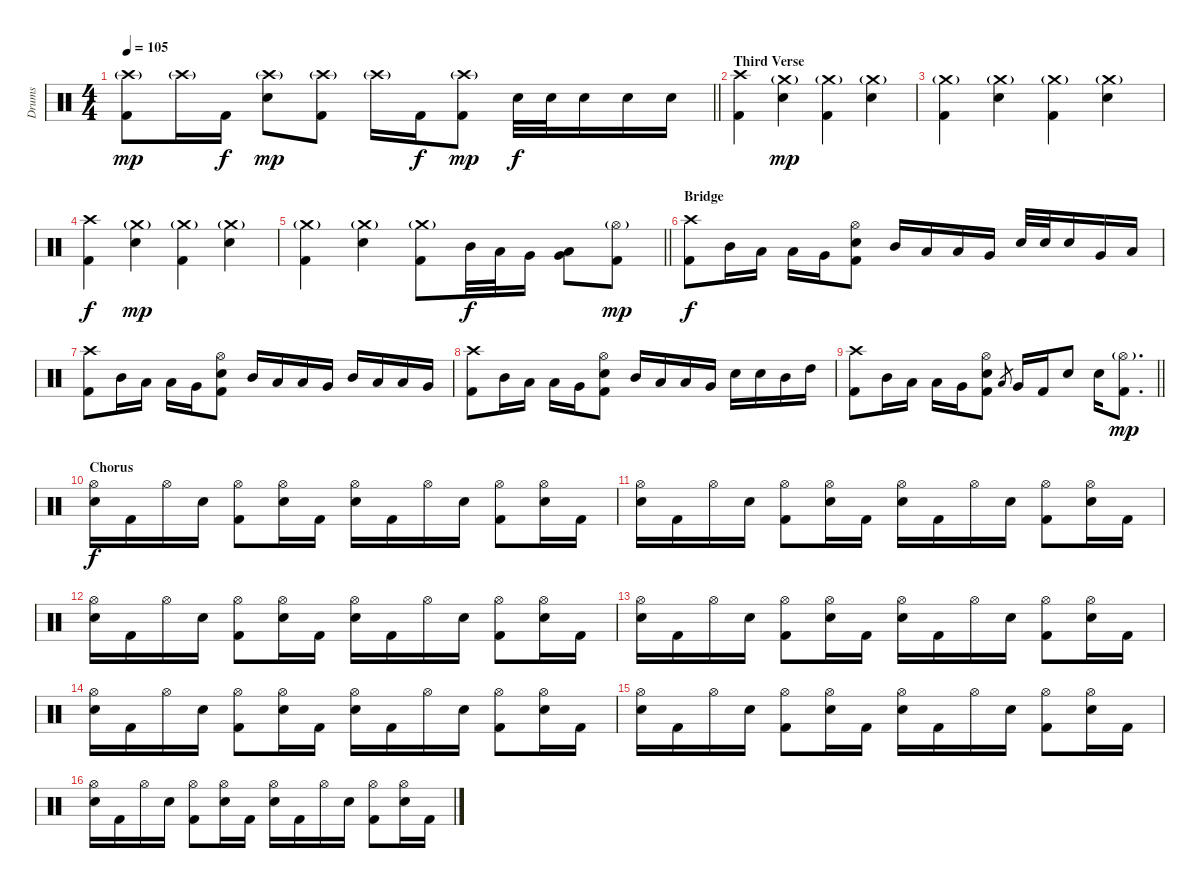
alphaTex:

\track ("Drums" "Drums") {instrument percussion}
\staff {score}
\articulation defaults
\ts (4 4)
\tempo 105
\clef neutral
\barLineRight lightlight
\ks c
("Crash high (hit)"{g} "Kick (hit) 2").8{dy mp} "Crash high (hit)"{g}.16 "Kick (hit) 2".16{dy f} ("Crash high (hit)"{g} "Snare (hit) 2").8{dy mp} ("Crash high (hit)"{g} "Kick (hit) 2").8 "Crash high (hit)"{g}.16 "Kick (hit) 2".16{dy f} ("Crash high (hit)"{g} "Kick (hit) 2").8{dy mp} "Snare (hit) 2".32{dy f} "Snare (hit) 2".32 "Snare (hit) 2".16 "Snare (hit) 2".16 "Snare (hit) 2".16 |
\section ("" "Third Verse")
("Crash high (hit)" "Kick (hit) 2").4 ("Crash medium (hit)"{g} "Snare (hit) 2").4{dy mp} ("Crash medium (hit)"{g} "Kick (hit) 2").4 ("Crash medium (hit)"{g} "Snare (hit) 2").4 |
("Crash medium (hit)"{g} "Kick (hit) 2").4 ("Crash medium (hit)"{g} "Snare (hit) 2").4 ("Crash medium (hit)"{g} "Kick (hit) 2").4 ("Crash medium (hit)"{g} "Snare (hit) 2").4 |
("Crash high (hit)" "Kick (hit) 2").4{dy f} ("Crash medium (hit)"{g} "Snare (hit) 2").4{dy mp} ("Crash medium (hit)"{g} "Kick (hit) 2").4 ("Crash medium (hit)"{g} "Snare (hit) 2").4 |
\barLineRight lightlight
("Crash medium (hit)"{g} "Kick (hit) 2").4 ("Crash medium (hit)"{g} "Snare (hit) 2").4 ("Crash medium (hit)"{g} "Kick (hit) 2").8 "Mid Tom (hit)".32{dy f} "Low Tom (hit)".32 "Very Low Tom (hit)".16 ("Very Low Tom (hit)" "Low Floor Tom (hit)").8 ("Hi-Hat (open)"{g} "Kick (hit) 2").8{dy mp} |
\section ("" "Bridge")
("Crash high (hit)" "Kick (hit) 2").8{dy f} "Mid Tom (hit)".16 "Low Tom (hit)".16 "Low Tom (hit)".16 "Very Low Tom (hit)".16 ("Hi-Hat (open)" "Snare (hit) 2" "Kick (hit) 2").8 "Mid Tom (hit)".16 "Low Tom (hit)".16 "Low Tom (hit)".16 "Very Low Tom (hit)".16 "Snare (hit) 2".32 "Snare (hit) 2".32 "Snare (hit) 2".16 "Very Low Tom (hit)".16 "Low Floor Tom (hit)".16 |
("Crash high (hit)" "Kick (hit) 2").8 "Mid Tom (hit)".16 "Low Tom (hit)".16 "Low Tom (hit)".16 "Very Low Tom (hit)".16 ("Hi-Hat (open)" "Snare (hit) 2" "Kick (hit) 2").8 "Mid Tom (hit)".16 "Low Tom (hit)".16 "Low Tom (hit)".16 "Very Low Tom (hit)".16 "Mid Tom (hit)".16 "Low Tom (hit)".16 "Low Tom (hit)".16 "Very Low Tom (hit)".16 |
("Crash high (hit)" "Kick (hit) 2").8 "Mid Tom (hit)".16 "Low Tom (hit)".16 "Low Tom (hit)".16 "Very Low Tom (hit)".16 ("Hi-Hat (open)" "Snare (hit) 2" "Kick (hit) 2").8 "Mid Tom (hit)".16 "Low Tom (hit)".16 "Low Tom (hit)".16 "Very Low Tom (hit)".16 "Snare (hit) 2".16 "Snare (hit) 2".16 "Mid Tom (hit)".16 "High Tom (hit)".16 |
\barLineRight lightlight
("Crash high (hit)" "Kick (hit) 2").8 "Mid Tom (hit)".16 "Low Tom (hit)".16 "Low Tom (hit)".16 "Very Low Tom (hit)".16 ("Hi-Hat (open)" "Snare (hit) 2" "Kick (hit) 2").8 "Low Tom (hit)".8{gr} "Very Low Tom (hit)".16 "Kick (hit) 2".16 "Snare (hit) 2".8 "Snare (hit) 2".16 ("Hi-Hat (open)"{g} "Kick (hit) 2").8{d dy mp} |
\section ("" "Chorus")
("Hi-Hat (open)" "Snare (hit) 2").16{dy f} "Kick (hit) 2".16 "Hi-Hat (open)".16 "Snare (hit) 2".16 ("Hi-Hat (open)" "Kick (hit) 2").8 ("Hi-Hat (open)" "Snare (hit) 2").16 "Kick (hit) 2".16 ("Hi-Hat (open)" "Snare (hit) 2").16 "Kick (hit) 2".16 "Hi-Hat (open)".16 "Snare (hit) 2".16 ("Hi-Hat (open)" "Kick (hit) 2").8 ("Hi-Hat (open)" "Snare (hit) 2").16 "Kick (hit) 2".16 |
("Hi-Hat (open)" "Snare (hit) 2").16 "Kick (hit) 2".16 "Hi-Hat (open)".16 "Snare (hit) 2".16 ("Hi-Hat (open)" "Kick (hit) 2").8 ("Hi-Hat (open)" "Snare (hit) 2").16 "Kick (hit) 2".16 ("Hi-Hat (open)" "Snare (hit) 2").16 "Kick (hit) 2".16 "Hi-Hat (open)".16 "Snare (hit) 2".16 ("Hi-Hat (open)" "Kick (hit) 2").8 ("Hi-Hat (open)" "Snare (hit) 2").16 "Kick (hit) 2".16 |
("Hi-Hat (open)" "Snare (hit) 2").16 "Kick (hit) 2".16 "Hi-Hat (open)".16 "Snare (hit) 2".16 ("Hi-Hat (open)" "Kick (hit) 2").8 ("Hi-Hat (open)" "Snare (hit) 2").16 "Kick (hit) 2".16 ("Hi-Hat (open)" "Snare (hit) 2").16 "Kick (hit) 2".16 "Hi-Hat (open)".16 "Snare (hit) 2".16 ("Hi-Hat (open)" "Kick (hit) 2").8 ("Hi-Hat (open)" "Snare (hit) 2").16 "Kick (hit) 2".16 |
("Hi-Hat (open)" "Snare (hit) 2").16 "Kick (hit) 2".16 "Hi-Hat (open)".16 "Snare (hit) 2".16 ("Hi-Hat (open)" "Kick (hit) 2").8 ("Hi-Hat (open)" "Snare (hit) 2").16 "Kick (hit) 2".16 ("Hi-Hat (open)" "Snare (hit) 2").16 "Kick (hit) 2".16 "Hi-Hat (open)".16 "Snare (hit) 2".16 ("Hi-Hat (open)" "Kick (hit) 2").8 ("Hi-Hat (open)" "Snare (hit) 2").16 "Kick (hit) 2".16 |
("Hi-Hat (open)" "Snare (hit) 2").16 "Kick (hit) 2".16 "Hi-Hat (open)".16 "Snare (hit) 2".16 ("Hi-Hat (open)" "Kick (hit) 2").8 ("Hi-Hat (open)" "Snare (hit) 2").16 "Kick (hit) 2".16 ("Hi-Hat (open)" "Snare (hit) 2").16 "Kick (hit) 2".16 "Hi-Hat (open)".16 "Snare (hit) 2".16 ("Hi-Hat (open)" "Kick (hit) 2").8 ("Hi-Hat (open)" "Snare (hit) 2").16 "Kick (hit) 2".16 |
("Hi-Hat (open)" "Snare (hit) 2").16 "Kick (hit) 2".16 "Hi-Hat (open)".16 "Snare (hit) 2".16 ("Hi-Hat (open)" "Kick (hit) 2").8 ("Hi-Hat (open)" "Snare (hit) 2").16 "Kick (hit) 2".16 ("Hi-Hat (open)" "Snare (hit) 2").16 "Kick (hit) 2".16 "Hi-Hat (open)".16 "Snare (hit) 2".16 ("Hi-Hat (open)" "Kick (hit) 2").8 ("Hi-Hat (open)" "Snare (hit) 2").16 "Kick (hit) 2".16 |
("Hi-Hat (open)" "Snare (hit) 2").16 "Kick (hit) 2".16 "Hi-Hat (open)".16 "Snare (hit) 2".16 ("Hi-Hat (open)" "Kick (hit) 2").8 ("Hi-Hat (open)" "Snare (hit) 2").16 "Kick (hit) 2".16 ("Hi-Hat (open)" "Snare (hit) 2").16 "Kick (hit) 2".16 "Hi-Hat (open)".16 "Snare (hit) 2".16 ("Hi-Hat (open)" "Kick (hit) 2").8 ("Hi-Hat (open)" "Snare (hit) 2").16 "Kick (hit) 2".16
